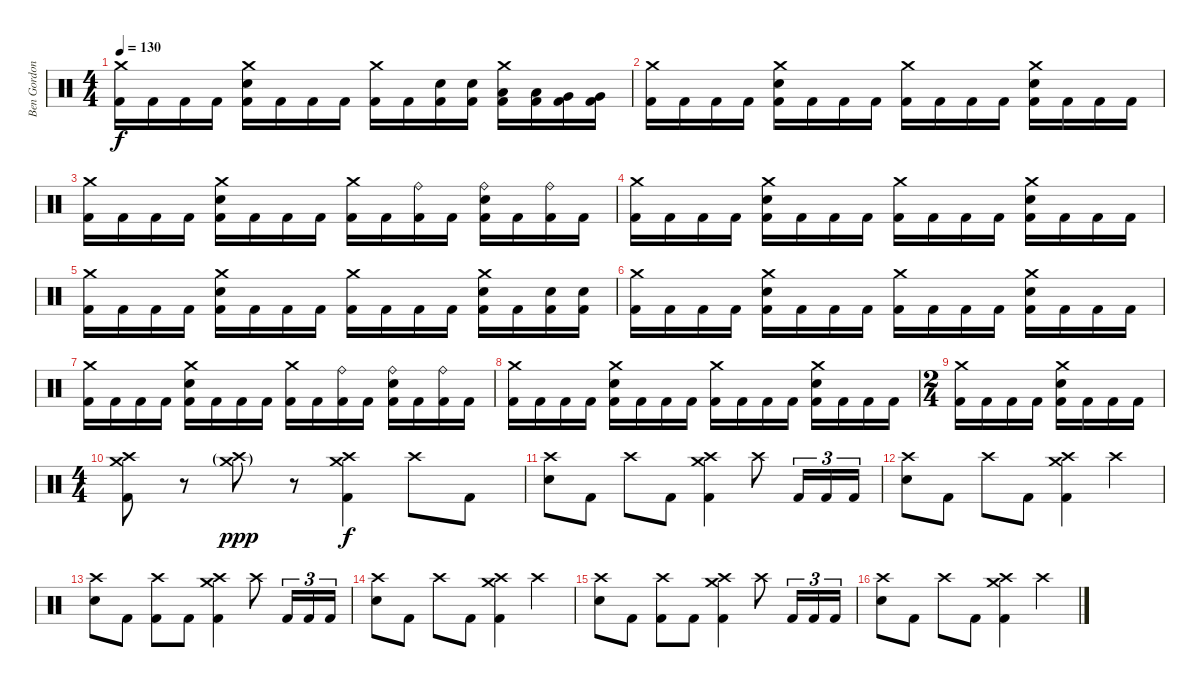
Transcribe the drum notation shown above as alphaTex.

\track ("Ben Gordon" "Ben Gordon") {instrument percussion}
\staff {score}
\articulation defaults
\ts (4 4)
\tempo 130
\clef neutral
\ks c
("Crash medium (hit)" "Kick (hit) 2").16{dy f} "Kick (hit) 2".16 "Kick (hit) 2".16 "Kick (hit) 2".16 ("Crash medium (hit)" "Snare (hit) 2" "Kick (hit) 2").16 "Kick (hit) 2".16 "Kick (hit) 2".16 "Kick (hit) 2".16 ("Crash medium (hit)" "Kick (hit) 2").16 "Kick (hit) 2".16 ("Snare (hit) 2" "Kick (hit) 2").16 ("Snare (hit) 2" "Kick (hit) 2").16 ("Crash medium (hit)" "Low Tom (hit)" "Kick (hit) 2").16 ("Low Tom (hit)" "Kick (hit) 2").16 ("Very Low Tom (hit)" "Kick (hit) 2").16 ("Very Low Tom (hit)" "Kick (hit) 2").16 |
("Crash medium (hit)" "Kick (hit) 2").16 "Kick (hit) 2".16 "Kick (hit) 2".16 "Kick (hit) 2".16 ("Crash medium (hit)" "Snare (hit) 2" "Kick (hit) 2").16 "Kick (hit) 2".16 "Kick (hit) 2".16 "Kick (hit) 2".16 ("Crash medium (hit)" "Kick (hit) 2").16 "Kick (hit) 2".16 "Kick (hit) 2".16 "Kick (hit) 2".16 ("Crash medium (hit)" "Snare (hit) 2" "Kick (hit) 2").16 "Kick (hit) 2".16 "Kick (hit) 2".16 "Kick (hit) 2".16 |
("Crash medium (hit)" "Kick (hit) 2").16 "Kick (hit) 2".16 "Kick (hit) 2".16 "Kick (hit) 2".16 ("Crash medium (hit)" "Snare (hit) 2" "Kick (hit) 2").16 "Kick (hit) 2".16 "Kick (hit) 2".16 "Kick (hit) 2".16 ("Crash medium (hit)" "Kick (hit) 2").16 "Kick (hit) 2".16 ("Ride (bell)" "Kick (hit) 2").16 "Kick (hit) 2".16 ("Ride (bell)" "Snare (hit) 2" "Kick (hit) 2").16 "Kick (hit) 2".16 ("Ride (bell)" "Kick (hit) 2").16 "Kick (hit) 2".16 |
("Crash medium (hit)" "Kick (hit) 2").16 "Kick (hit) 2".16 "Kick (hit) 2".16 "Kick (hit) 2".16 ("Crash medium (hit)" "Snare (hit) 2" "Kick (hit) 2").16 "Kick (hit) 2".16 "Kick (hit) 2".16 "Kick (hit) 2".16 ("Crash medium (hit)" "Kick (hit) 2").16 "Kick (hit) 2".16 "Kick (hit) 2".16 "Kick (hit) 2".16 ("Crash medium (hit)" "Snare (hit) 2" "Kick (hit) 2").16 "Kick (hit) 2".16 "Kick (hit) 2".16 "Kick (hit) 2".16 |
("Crash medium (hit)" "Kick (hit) 2").16 "Kick (hit) 2".16 "Kick (hit) 2".16 "Kick (hit) 2".16 ("Crash medium (hit)" "Snare (hit) 2" "Kick (hit) 2").16 "Kick (hit) 2".16 "Kick (hit) 2".16 "Kick (hit) 2".16 ("Crash medium (hit)" "Kick (hit) 2").16 "Kick (hit) 2".16 "Kick (hit) 2".16 "Kick (hit) 2".16 ("Crash medium (hit)" "Snare (hit) 2" "Kick (hit) 2").16 "Kick (hit) 2".16 ("Snare (hit) 2" "Kick (hit) 2").16 ("Snare (hit) 2" "Kick (hit) 2").16 |
("Crash medium (hit)" "Kick (hit) 2").16 "Kick (hit) 2".16 "Kick (hit) 2".16 "Kick (hit) 2".16 ("Crash medium (hit)" "Snare (hit) 2" "Kick (hit) 2").16 "Kick (hit) 2".16 "Kick (hit) 2".16 "Kick (hit) 2".16 ("Crash medium (hit)" "Kick (hit) 2").16 "Kick (hit) 2".16 "Kick (hit) 2".16 "Kick (hit) 2".16 ("Crash medium (hit)" "Snare (hit) 2" "Kick (hit) 2").16 "Kick (hit) 2".16 "Kick (hit) 2".16 "Kick (hit) 2".16 |
("Crash medium (hit)" "Kick (hit) 2").16 "Kick (hit) 2".16 "Kick (hit) 2".16 "Kick (hit) 2".16 ("Crash medium (hit)" "Snare (hit) 2" "Kick (hit) 2").16 "Kick (hit) 2".16 "Kick (hit) 2".16 "Kick (hit) 2".16 ("Crash medium (hit)" "Kick (hit) 2").16 "Kick (hit) 2".16 ("Ride (bell)" "Kick (hit) 2").16 "Kick (hit) 2".16 ("Ride (bell)" "Snare (hit) 2" "Kick (hit) 2").16 "Kick (hit) 2".16 ("Ride (bell)" "Kick (hit) 2").16 "Kick (hit) 2".16 |
("Crash medium (hit)" "Kick (hit) 2").16 "Kick (hit) 2".16 "Kick (hit) 2".16 "Kick (hit) 2".16 ("Crash medium (hit)" "Snare (hit) 2" "Kick (hit) 2").16 "Kick (hit) 2".16 "Kick (hit) 2".16 "Kick (hit) 2".16 ("Crash medium (hit)" "Kick (hit) 2").16 "Kick (hit) 2".16 "Kick (hit) 2".16 "Kick (hit) 2".16 ("Crash medium (hit)" "Snare (hit) 2" "Kick (hit) 2").16 "Kick (hit) 2".16 "Kick (hit) 2".16 "Kick (hit) 2".16 |
\ts (2 4)
("Crash medium (hit)" "Kick (hit) 2").16 "Kick (hit) 2".16 "Kick (hit) 2".16 "Kick (hit) 2".16 ("Crash medium (hit)" "Snare (hit) 2" "Kick (hit) 2").16 "Kick (hit) 2".16 "Kick (hit) 2".16 "Kick (hit) 2".16 |
\ts (4 4)
("Crash medium (hit)" "Crash high (hit)" "Kick (hit) 2").8{volume 15} r.8 ("Crash medium (hit)"{g} "Crash high (hit)"{g}).8{dy ppp} r.8 ("Crash medium (hit)" "Crash high (hit)" "Kick (hit) 2").4{dy f} "Crash high (hit)".8 "Kick (hit) 2".8 |
("Crash high (hit)" "Snare (hit) 2").8 "Kick (hit) 2".8 "Crash high (hit)".8 "Kick (hit) 2".8 ("Crash medium (hit)" "Crash high (hit)" "Kick (hit) 2").4 "Crash high (hit)".8 "Kick (hit) 2".16{tu (3 2)} "Kick (hit) 2".16{tu (3 2)} "Kick (hit) 2".16{tu (3 2)} |
("Crash high (hit)" "Snare (hit) 2").8 "Kick (hit) 2".8 "Crash high (hit)".8 "Kick (hit) 2".8 ("Crash medium (hit)" "Crash high (hit)" "Kick (hit) 2").4 "Crash high (hit)".4 |
("Crash high (hit)" "Snare (hit) 2").8 "Kick (hit) 2".8 ("Crash high (hit)" "Kick (hit) 2").8 "Kick (hit) 2".8 ("Crash medium (hit)" "Crash high (hit)" "Kick (hit) 2").4 "Crash high (hit)".8 "Kick (hit) 2".16{tu (3 2)} "Kick (hit) 2".16{tu (3 2)} "Kick (hit) 2".16{tu (3 2)} |
("Crash high (hit)" "Snare (hit) 2").8 "Kick (hit) 2".8 "Crash high (hit)".8 "Kick (hit) 2".8 ("Crash medium (hit)" "Crash high (hit)" "Kick (hit) 2").4 "Crash high (hit)".4 |
("Crash high (hit)" "Snare (hit) 2").8 "Kick (hit) 2".8 ("Crash high (hit)" "Kick (hit) 2").8 "Kick (hit) 2".8 ("Crash medium (hit)" "Crash high (hit)" "Kick (hit) 2").4 "Crash high (hit)".8 "Kick (hit) 2".16{tu (3 2)} "Kick (hit) 2".16{tu (3 2)} "Kick (hit) 2".16{tu (3 2)} |
("Crash high (hit)" "Snare (hit) 2").8 "Kick (hit) 2".8 "Crash high (hit)".8 "Kick (hit) 2".8 ("Crash medium (hit)" "Crash high (hit)" "Kick (hit) 2").4 "Crash high (hit)".4
